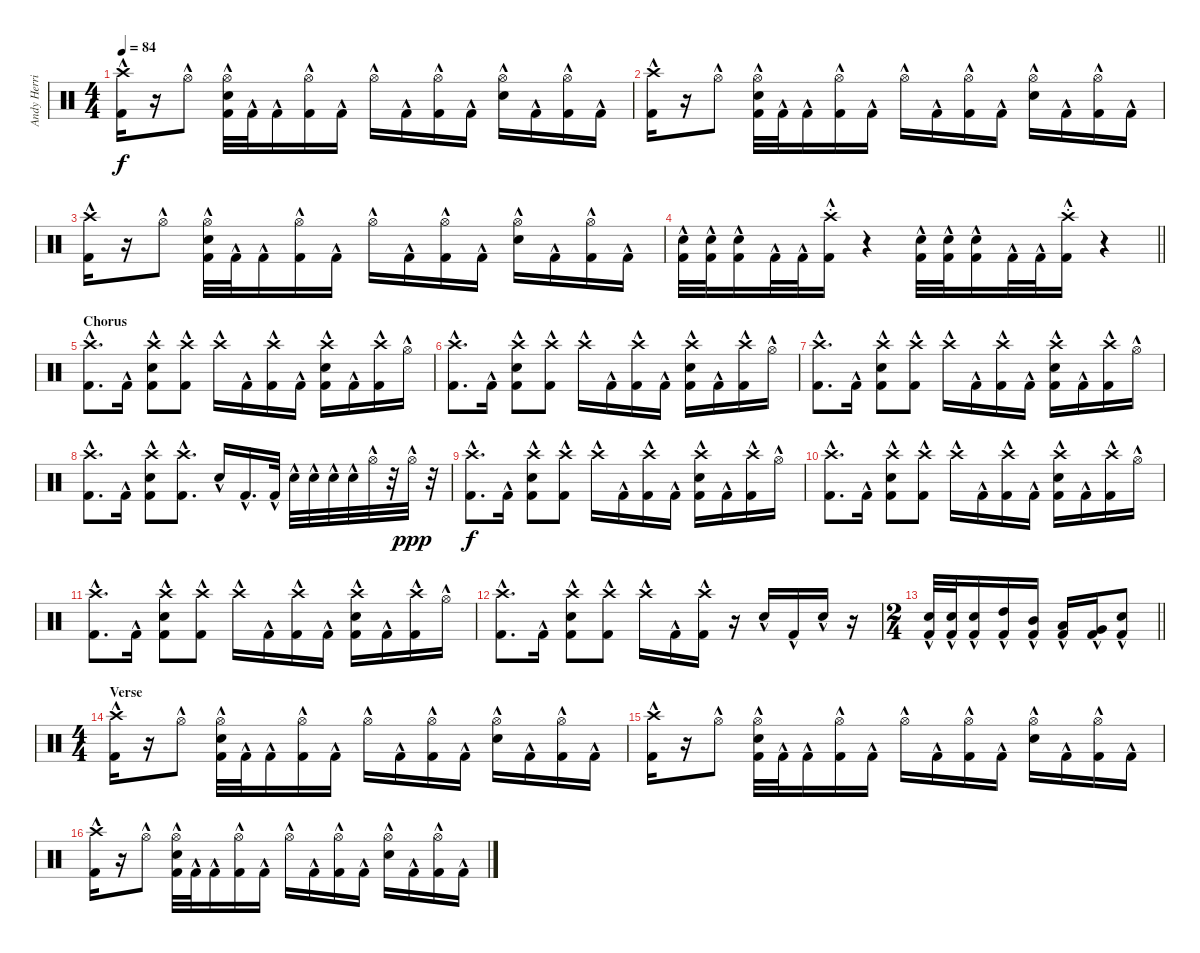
\track ("Andy Herrick" "Andy Herri") {instrument percussion}
\staff {score}
\articulation defaults
\ts (4 4)
\tempo 84
\clef neutral
\ks c
("Crash high (hit)"{hac} "Kick (hit) 2"{hac}).16{dy f} r.16 "Hi-Hat (open)"{hac}.8 ("Hi-Hat (open)"{hac} "Electric Snare (hit)"{hac} "Kick (hit) 2"{hac}).32 "Kick (hit) 2"{hac}.32 "Kick (hit) 2"{hac}.16 ("Hi-Hat (open)"{hac} "Kick (hit) 2"{hac}).16 "Kick (hit) 2"{hac}.16 "Hi-Hat (open)"{hac}.16 "Kick (hit) 2"{hac}.16 ("Hi-Hat (open)"{hac} "Kick (hit) 2"{hac}).16 "Kick (hit) 2"{hac}.16 ("Hi-Hat (open)"{hac} "Electric Snare (hit)"{hac}).16 "Kick (hit) 2"{hac}.16 ("Hi-Hat (open)"{hac} "Kick (hit) 2"{hac}).16 "Kick (hit) 2"{hac}.16 |
("Crash high (hit)"{hac} "Kick (hit) 2"{hac}).16 r.16 "Hi-Hat (open)"{hac}.8 ("Hi-Hat (open)"{hac} "Electric Snare (hit)"{hac} "Kick (hit) 2"{hac}).32 "Kick (hit) 2"{hac}.32 "Kick (hit) 2"{hac}.16 ("Hi-Hat (open)"{hac} "Kick (hit) 2"{hac}).16 "Kick (hit) 2"{hac}.16 "Hi-Hat (open)"{hac}.16 "Kick (hit) 2"{hac}.16 ("Hi-Hat (open)"{hac} "Kick (hit) 2"{hac}).16 "Kick (hit) 2"{hac}.16 ("Hi-Hat (open)"{hac} "Electric Snare (hit)"{hac}).16 "Kick (hit) 2"{hac}.16 ("Hi-Hat (open)"{hac} "Kick (hit) 2"{hac}).16 "Kick (hit) 2"{hac}.16 |
("Crash high (hit)"{hac} "Kick (hit) 2"{hac}).16 r.16 "Hi-Hat (open)"{hac}.8 ("Hi-Hat (open)"{hac} "Electric Snare (hit)"{hac} "Kick (hit) 2"{hac}).32 "Kick (hit) 2"{hac}.32 "Kick (hit) 2"{hac}.16 ("Hi-Hat (open)"{hac} "Kick (hit) 2"{hac}).16 "Kick (hit) 2"{hac}.16 "Hi-Hat (open)"{hac}.16 "Kick (hit) 2"{hac}.16 ("Hi-Hat (open)"{hac} "Kick (hit) 2"{hac}).16 "Kick (hit) 2"{hac}.16 ("Hi-Hat (open)"{hac} "Electric Snare (hit)"{hac}).16 "Kick (hit) 2"{hac}.16 ("Hi-Hat (open)"{hac} "Kick (hit) 2"{hac}).16 "Kick (hit) 2"{hac}.16 |
\barLineRight lightlight
("Electric Snare (hit)"{hac} "Kick (hit) 2"{hac}).32 ("Electric Snare (hit)"{hac} "Kick (hit) 2"{hac}).32 ("Electric Snare (hit)"{hac} "Kick (hit) 2"{hac}).16 "Kick (hit) 2"{hac}.32 "Kick (hit) 2"{hac}.32 ("Crash high (hit)"{hac st} "Kick (hit) 2"{hac}).16 r.4 ("Electric Snare (hit)"{hac} "Kick (hit) 2"{hac}).32 ("Electric Snare (hit)"{hac} "Kick (hit) 2"{hac}).32 ("Electric Snare (hit)"{hac} "Kick (hit) 2"{hac}).16 "Kick (hit) 2"{hac}.32 "Kick (hit) 2"{hac}.32 ("Crash high (hit)"{hac st} "Kick (hit) 2"{hac}).16 r.4 |
\section ("" "Chorus")
("Crash high (hit)"{hac} "Kick (hit) 2"{hac}).8{d} "Kick (hit) 2"{hac}.16 ("Crash high (hit)"{hac} "Electric Snare (hit)"{hac} "Kick (hit) 2"{hac}).8 ("Crash high (hit)"{hac} "Kick (hit) 2"{hac}).8 "Crash high (hit)"{hac}.16 "Kick (hit) 2"{hac}.16 ("Crash high (hit)"{hac} "Kick (hit) 2"{hac}).16 "Kick (hit) 2"{hac}.16 ("Crash high (hit)"{hac} "Electric Snare (hit)"{hac} "Kick (hit) 2"{hac}).16 "Kick (hit) 2"{hac}.16 ("Crash high (hit)"{hac} "Kick (hit) 2"{hac}).16 "Hi-Hat (open)"{hac}.16 |
("Crash high (hit)"{hac} "Kick (hit) 2"{hac}).8{d} "Kick (hit) 2"{hac}.16 ("Crash high (hit)"{hac} "Electric Snare (hit)"{hac} "Kick (hit) 2"{hac}).8 ("Crash high (hit)"{hac} "Kick (hit) 2"{hac}).8 "Crash high (hit)"{hac}.16 "Kick (hit) 2"{hac}.16 ("Crash high (hit)"{hac} "Kick (hit) 2"{hac}).16 "Kick (hit) 2"{hac}.16 ("Crash high (hit)"{hac} "Electric Snare (hit)"{hac} "Kick (hit) 2"{hac}).16 "Kick (hit) 2"{hac}.16 ("Crash high (hit)"{hac} "Kick (hit) 2"{hac}).16 "Hi-Hat (open)"{hac}.16 |
("Crash high (hit)"{hac} "Kick (hit) 2"{hac}).8{d} "Kick (hit) 2"{hac}.16 ("Crash high (hit)"{hac} "Electric Snare (hit)"{hac} "Kick (hit) 2"{hac}).8 ("Crash high (hit)"{hac} "Kick (hit) 2"{hac}).8 "Crash high (hit)"{hac}.16 "Kick (hit) 2"{hac}.16 ("Crash high (hit)"{hac} "Kick (hit) 2"{hac}).16 "Kick (hit) 2"{hac}.16 ("Crash high (hit)"{hac} "Electric Snare (hit)"{hac} "Kick (hit) 2"{hac}).16 "Kick (hit) 2"{hac}.16 ("Crash high (hit)"{hac} "Kick (hit) 2"{hac}).16 "Hi-Hat (open)"{hac}.16 |
("Crash high (hit)"{hac} "Kick (hit) 2"{hac}).8{d} "Kick (hit) 2"{hac}.16 ("Crash high (hit)"{hac} "Electric Snare (hit)"{hac} "Kick (hit) 2"{hac}).8 ("Crash high (hit)"{hac} "Kick (hit) 2"{hac}).8{d} "Electric Snare (hit)"{hac}.16 "Kick (hit) 2"{hac}.16{d} "Kick (hit) 2"{hac}.32 "Electric Snare (hit)"{hac}.32 "Electric Snare (hit)"{hac}.32 "Electric Snare (hit)"{hac}.32 "Electric Snare (hit)"{hac}.32 "Hi-Hat (open)"{hac}.32 r.32 "Hi-Hat (open)"{hac}.32{dy ppp} r.32 |
("Crash high (hit)"{hac} "Kick (hit) 2"{hac}).8{d dy f} "Kick (hit) 2"{hac}.16 ("Crash high (hit)"{hac} "Electric Snare (hit)"{hac} "Kick (hit) 2"{hac}).8 ("Crash high (hit)"{hac} "Kick (hit) 2"{hac}).8 "Crash high (hit)"{hac}.16 "Kick (hit) 2"{hac}.16 ("Crash high (hit)"{hac} "Kick (hit) 2"{hac}).16 "Kick (hit) 2"{hac}.16 ("Crash high (hit)"{hac} "Electric Snare (hit)"{hac} "Kick (hit) 2"{hac}).16 "Kick (hit) 2"{hac}.16 ("Crash high (hit)"{hac} "Kick (hit) 2"{hac}).16 "Hi-Hat (open)"{hac}.16 |
("Crash high (hit)"{hac} "Kick (hit) 2"{hac}).8{d} "Kick (hit) 2"{hac}.16 ("Crash high (hit)"{hac} "Electric Snare (hit)"{hac} "Kick (hit) 2"{hac}).8 ("Crash high (hit)"{hac} "Kick (hit) 2"{hac}).8 "Crash high (hit)"{hac}.16 "Kick (hit) 2"{hac}.16 ("Crash high (hit)"{hac} "Kick (hit) 2"{hac}).16 "Kick (hit) 2"{hac}.16 ("Crash high (hit)"{hac} "Electric Snare (hit)"{hac} "Kick (hit) 2"{hac}).16 "Kick (hit) 2"{hac}.16 ("Crash high (hit)"{hac} "Kick (hit) 2"{hac}).16 "Hi-Hat (open)"{hac}.16 |
("Crash high (hit)"{hac} "Kick (hit) 2"{hac}).8{d} "Kick (hit) 2"{hac}.16 ("Crash high (hit)"{hac} "Electric Snare (hit)"{hac} "Kick (hit) 2"{hac}).8 ("Crash high (hit)"{hac} "Kick (hit) 2"{hac}).8 "Crash high (hit)"{hac}.16 "Kick (hit) 2"{hac}.16 ("Crash high (hit)"{hac} "Kick (hit) 2"{hac}).16 "Kick (hit) 2"{hac}.16 ("Crash high (hit)"{hac} "Electric Snare (hit)"{hac} "Kick (hit) 2"{hac}).16 "Kick (hit) 2"{hac}.16 ("Crash high (hit)"{hac} "Kick (hit) 2"{hac}).16 "Hi-Hat (open)"{hac}.16 |
("Crash high (hit)"{hac} "Kick (hit) 2"{hac}).8{d} "Kick (hit) 2"{hac}.16 ("Crash high (hit)"{hac} "Electric Snare (hit)"{hac} "Kick (hit) 2"{hac}).8 ("Crash high (hit)"{hac} "Kick (hit) 2"{hac}).8 "Crash high (hit)"{hac}.16 "Kick (hit) 2"{hac}.16 ("Crash high (hit)"{hac} "Kick (hit) 2"{hac}).16 r.16 "Electric Snare (hit)"{hac}.16 "Kick (hit) 2"{hac}.16 "Electric Snare (hit)"{hac}.16 r.16 |
\ts (2 4)
\barLineRight lightlight
("Electric Snare (hit)"{hac} "Kick (hit) 2"{hac}).32 ("Electric Snare (hit)"{hac} "Kick (hit) 2"{hac}).32 ("Electric Snare (hit)"{hac} "Kick (hit) 2"{hac}).16 ("High Tom (hit)"{hac} "Kick (hit) 2"{hac}).16 ("Mid Tom (hit)"{hac} "Kick (hit) 2"{hac}).16 ("Low Tom (hit)"{hac} "Kick (hit) 2"{hac}).16 ("Very Low Tom (hit)"{hac} "Kick (hit) 2"{hac}).16 ("Electric Snare (hit)"{hac} "Kick (hit) 2"{hac}).8 |
\ts (4 4)
\section ("" "Verse")
("Crash high (hit)"{hac} "Kick (hit) 2"{hac}).16 r.16 "Hi-Hat (open)"{hac}.8 ("Hi-Hat (open)"{hac} "Electric Snare (hit)"{hac} "Kick (hit) 2"{hac}).32 "Kick (hit) 2"{hac}.32 "Kick (hit) 2"{hac}.16 ("Hi-Hat (open)"{hac} "Kick (hit) 2"{hac}).16 "Kick (hit) 2"{hac}.16 "Hi-Hat (open)"{hac}.16 "Kick (hit) 2"{hac}.16 ("Hi-Hat (open)"{hac} "Kick (hit) 2"{hac}).16 "Kick (hit) 2"{hac}.16 ("Hi-Hat (open)"{hac} "Electric Snare (hit)"{hac}).16 "Kick (hit) 2"{hac}.16 ("Hi-Hat (open)"{hac} "Kick (hit) 2"{hac}).16 "Kick (hit) 2"{hac}.16 |
("Crash high (hit)"{hac} "Kick (hit) 2"{hac}).16 r.16 "Hi-Hat (open)"{hac}.8 ("Hi-Hat (open)"{hac} "Electric Snare (hit)"{hac} "Kick (hit) 2"{hac}).32 "Kick (hit) 2"{hac}.32 "Kick (hit) 2"{hac}.16 ("Hi-Hat (open)"{hac} "Kick (hit) 2"{hac}).16 "Kick (hit) 2"{hac}.16 "Hi-Hat (open)"{hac}.16 "Kick (hit) 2"{hac}.16 ("Hi-Hat (open)"{hac} "Kick (hit) 2"{hac}).16 "Kick (hit) 2"{hac}.16 ("Hi-Hat (open)"{hac} "Electric Snare (hit)"{hac}).16 "Kick (hit) 2"{hac}.16 ("Hi-Hat (open)"{hac} "Kick (hit) 2"{hac}).16 "Kick (hit) 2"{hac}.16 |
("Crash high (hit)"{hac} "Kick (hit) 2"{hac}).16 r.16 "Hi-Hat (open)"{hac}.8 ("Hi-Hat (open)"{hac} "Electric Snare (hit)"{hac} "Kick (hit) 2"{hac}).32 "Kick (hit) 2"{hac}.32 "Kick (hit) 2"{hac}.16 ("Hi-Hat (open)"{hac} "Kick (hit) 2"{hac}).16 "Kick (hit) 2"{hac}.16 "Hi-Hat (open)"{hac}.16 "Kick (hit) 2"{hac}.16 ("Hi-Hat (open)"{hac} "Kick (hit) 2"{hac}).16 "Kick (hit) 2"{hac}.16 ("Hi-Hat (open)"{hac} "Electric Snare (hit)"{hac}).16 "Kick (hit) 2"{hac}.16 ("Hi-Hat (open)"{hac} "Kick (hit) 2"{hac}).16 "Kick (hit) 2"{hac}.16
